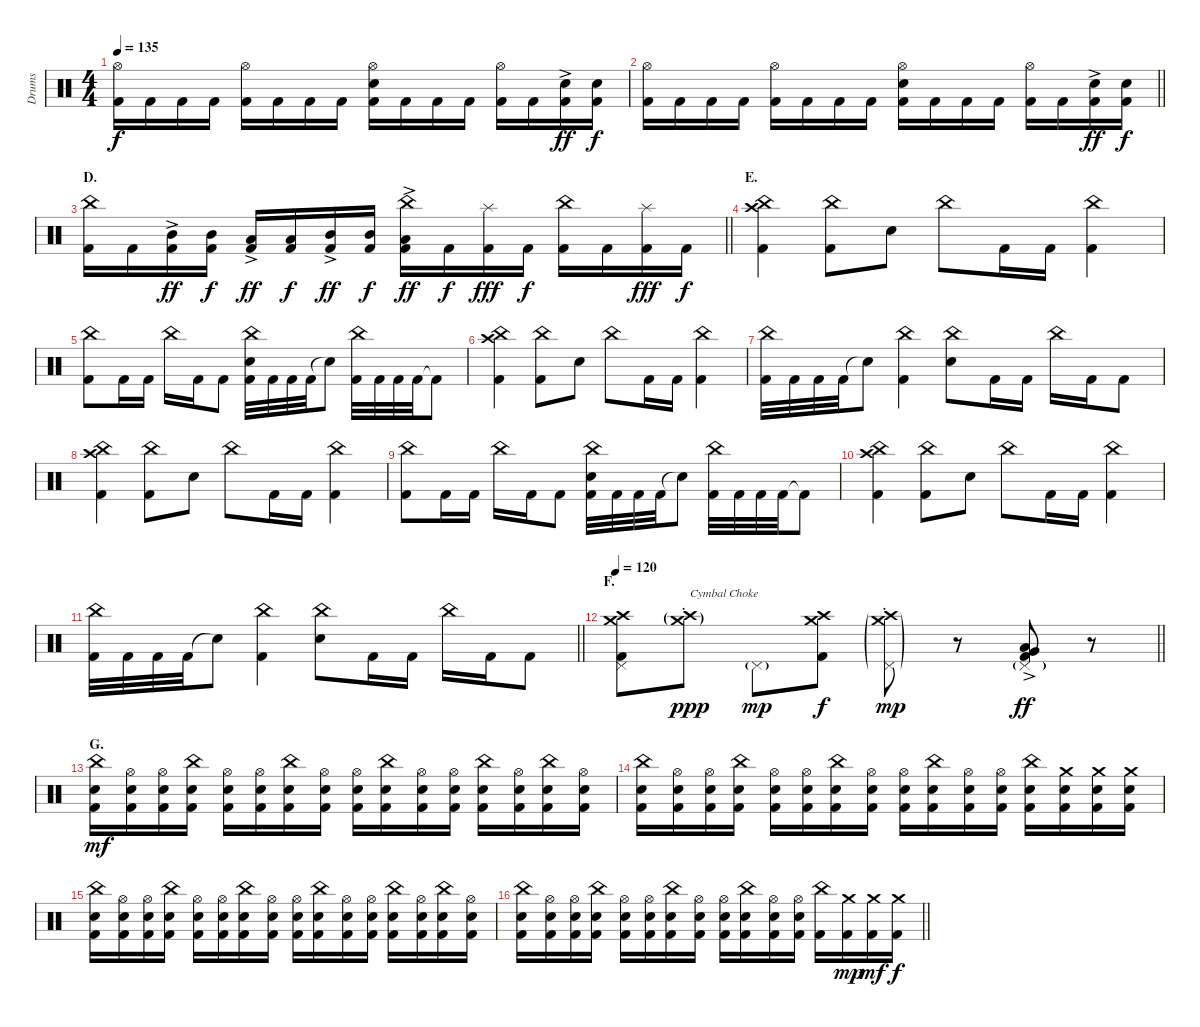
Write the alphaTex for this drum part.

\track ("Drums" "Drums") {instrument percussion}
\staff {score}
\articulation defaults
\ts (4 4)
\tempo 135
\clef neutral
\ks c
("Hi-Hat (open)" "Kick (hit) 2").16{dy f} "Kick (hit) 2".16 "Kick (hit) 2".16 "Kick (hit) 2".16 ("Hi-Hat (open)" "Kick (hit) 2").16 "Kick (hit) 2".16 "Kick (hit) 2".16 "Kick (hit) 2".16 ("Hi-Hat (open)" "Electric Snare (hit)" "Kick (hit) 2").16 "Kick (hit) 2".16 "Kick (hit) 2".16 "Kick (hit) 2".16 ("Hi-Hat (open)" "Kick (hit) 2").16 "Kick (hit) 2".16 ("Electric Snare (hit)"{ac} "Kick (hit) 2").16{dy ff} ("Electric Snare (hit)" "Kick (hit) 2").16{dy f} |
\barLineRight lightlight
("Hi-Hat (open)" "Kick (hit) 2").16 "Kick (hit) 2".16 "Kick (hit) 2".16 "Kick (hit) 2".16 ("Hi-Hat (open)" "Kick (hit) 2").16 "Kick (hit) 2".16 "Kick (hit) 2".16 "Kick (hit) 2".16 ("Hi-Hat (open)" "Electric Snare (hit)" "Kick (hit) 2").16 "Kick (hit) 2".16 "Kick (hit) 2".16 "Kick (hit) 2".16 ("Hi-Hat (open)" "Kick (hit) 2").16 "Kick (hit) 2".16 ("Electric Snare (hit)"{ac} "Kick (hit) 2").16{dy ff} ("Electric Snare (hit)" "Kick (hit) 2").16{dy f} |
\section ("" "D.")
\barLineRight lightlight
("China (hit)" "Kick (hit) 2").16 "Kick (hit) 2".16 ("Mid Tom (hit)"{ac} "Kick (hit) 2").16{dy ff} ("Mid Tom (hit)" "Kick (hit) 2").16{dy f} ("Low Tom (hit)"{ac} "Kick (hit) 2").16{dy ff} ("Low Tom (hit)" "Kick (hit) 2").16{dy f} ("Mid Tom (hit)"{ac} "Kick (hit) 2").16{dy ff} ("Mid Tom (hit)" "Kick (hit) 2").16{dy f} ("China (hit)" "Low Tom (hit)"{ac} "Kick (hit) 2").16{dy ff} "Kick (hit) 2".16{dy f} ("Splash (hit)" "Kick (hit) 2").16{dy fff} "Kick (hit) 2".16{dy f} ("China (hit)" "Kick (hit) 2").16 "Kick (hit) 2".16 ("Splash (hit)" "Kick (hit) 2").16{dy fff} "Kick (hit) 2".16{dy f} |
\section ("" "E.")
("China (hit)" "Crash high (hit)" "Kick (hit) 2").4 ("China (hit)" "Kick (hit) 2").8 "Electric Snare (hit)".8 "China (hit)".8 "Kick (hit) 2".16 "Kick (hit) 2".16 ("China (hit)" "Kick (hit) 2").4 |
("China (hit)" "Kick (hit) 2").8 "Kick (hit) 2".16 "Kick (hit) 2".16 "China (hit)".16 "Kick (hit) 2".16 "Kick (hit) 2".8 ("China (hit)" "Electric Snare (hit)" "Kick (hit) 2").32 "Kick (hit) 2".32 "Kick (hit) 2".32 "Kick (hit) 2".32 "Snare (hit)"{t}.8 ("China (hit)" "Kick (hit) 2").32 "Kick (hit) 2".32 "Kick (hit) 2".32 "Kick (hit) 2".32 "Kick (hit) 2"{t}.8 |
("China (hit)" "Crash high (hit)" "Kick (hit) 2").4 ("China (hit)" "Kick (hit) 2").8 "Electric Snare (hit)".8 "China (hit)".8 "Kick (hit) 2".16 "Kick (hit) 2".16 ("China (hit)" "Kick (hit) 2").4 |
("China (hit)" "Kick (hit) 2").32 "Kick (hit) 2".32 "Kick (hit) 2".32 "Kick (hit) 2".32 "Snare (hit)"{t}.8 ("China (hit)" "Kick (hit) 2").4 ("China (hit)" "Electric Snare (hit)").8 "Kick (hit) 2".16 "Kick (hit) 2".16 "China (hit)".16 "Kick (hit) 2".16 "Kick (hit) 2".8 |
("China (hit)" "Crash high (hit)" "Kick (hit) 2").4 ("China (hit)" "Kick (hit) 2").8 "Electric Snare (hit)".8 "China (hit)".8 "Kick (hit) 2".16 "Kick (hit) 2".16 ("China (hit)" "Kick (hit) 2").4 |
("China (hit)" "Kick (hit) 2").8 "Kick (hit) 2".16 "Kick (hit) 2".16 "China (hit)".16 "Kick (hit) 2".16 "Kick (hit) 2".8 ("China (hit)" "Electric Snare (hit)" "Kick (hit) 2").32 "Kick (hit) 2".32 "Kick (hit) 2".32 "Kick (hit) 2".32 "Snare (hit)"{t}.8 ("China (hit)" "Kick (hit) 2").32 "Kick (hit) 2".32 "Kick (hit) 2".32 "Kick (hit) 2".32 "Kick (hit) 2"{t}.8 |
("China (hit)" "Crash high (hit)" "Kick (hit) 2").4 ("China (hit)" "Kick (hit) 2").8 "Electric Snare (hit)".8 "China (hit)".8 "Kick (hit) 2".16 "Kick (hit) 2".16 ("China (hit)" "Kick (hit) 2").4 |
\barLineRight lightlight
("China (hit)" "Kick (hit) 2").32 "Kick (hit) 2".32 "Kick (hit) 2".32 "Kick (hit) 2".32 "Snare (hit)"{t}.8 ("China (hit)" "Kick (hit) 2").4 ("China (hit)" "Electric Snare (hit)").8 "Kick (hit) 2".16 "Kick (hit) 2".16 "China (hit)".16 "Kick (hit) 2".16 "Kick (hit) 2".8 |
\section ("" "F.")
\tempo 120
\barLineRight lightlight
("Crash medium (hit)" "Crash high (hit)" "Pedal Hi-Hat (hit)" "Kick (hit) 2").8 ("Crash medium (hit)"{g st} "Crash high (hit)"{g st}).8{txt "Cymbal Choke" dy ppp} "Pedal Hi-Hat (hit)"{g}.8{dy mp} ("Crash medium (hit)" "Crash high (hit)" "Kick (hit) 2").8{dy f} ("Crash medium (hit)"{g st} "Crash high (hit)"{g st} "Pedal Hi-Hat (hit)"{g}).8{dy mp} r.8 ("Pedal Hi-Hat (hit)"{g} "Low Tom (hit)" "Very Low Tom (hit)"{ac} "Kick (hit) 2").8{dy ff} r.8 |
\section ("" "G.")
("China (hit)" "Electric Snare (hit)" "Kick (hit) 2").16{dy mf} ("Hi-Hat (open)" "Electric Snare (hit)" "Kick (hit) 2").16 ("Hi-Hat (open)" "Electric Snare (hit)" "Kick (hit) 2").16 ("China (hit)" "Electric Snare (hit)" "Kick (hit) 2").16 ("Hi-Hat (open)" "Electric Snare (hit)" "Kick (hit) 2").16 ("Hi-Hat (open)" "Electric Snare (hit)" "Kick (hit) 2").16 ("China (hit)" "Electric Snare (hit)" "Kick (hit) 2").16 ("Hi-Hat (open)" "Electric Snare (hit)" "Kick (hit) 2").16 ("Hi-Hat (open)" "Electric Snare (hit)" "Kick (hit) 2").16 ("China (hit)" "Electric Snare (hit)" "Kick (hit) 2").16 ("Hi-Hat (open)" "Electric Snare (hit)" "Kick (hit) 2").16 ("Hi-Hat (open)" "Electric Snare (hit)" "Kick (hit) 2").16 ("China (hit)" "Electric Snare (hit)" "Kick (hit) 2").16 ("Hi-Hat (open)" "Electric Snare (hit)" "Kick (hit) 2").16 ("China (hit)" "Electric Snare (hit)" "Kick (hit) 2").16 ("Hi-Hat (open)" "Electric Snare (hit)" "Kick (hit) 2").16 |
("China (hit)" "Electric Snare (hit)" "Kick (hit) 2").16 ("Hi-Hat (open)" "Electric Snare (hit)" "Kick (hit) 2").16 ("Hi-Hat (open)" "Electric Snare (hit)" "Kick (hit) 2").16 ("China (hit)" "Electric Snare (hit)" "Kick (hit) 2").16 ("Hi-Hat (open)" "Electric Snare (hit)" "Kick (hit) 2").16 ("Hi-Hat (open)" "Electric Snare (hit)" "Kick (hit) 2").16 ("China (hit)" "Electric Snare (hit)" "Kick (hit) 2").16 ("Hi-Hat (open)" "Electric Snare (hit)" "Kick (hit) 2").16 ("Hi-Hat (open)" "Electric Snare (hit)" "Kick (hit) 2").16 ("China (hit)" "Electric Snare (hit)" "Kick (hit) 2").16 ("Hi-Hat (open)" "Electric Snare (hit)" "Kick (hit) 2").16 ("Hi-Hat (open)" "Electric Snare (hit)" "Kick (hit) 2").16 ("China (hit)" "Electric Snare (hit)" "Kick (hit) 2").16 ("Crash medium (hit)" "Electric Snare (hit)" "Kick (hit) 2").16 ("Crash medium (hit)" "Electric Snare (hit)" "Kick (hit) 2").16 ("Crash medium (hit)" "Electric Snare (hit)" "Kick (hit) 2").16 |
("China (hit)" "Electric Snare (hit)" "Kick (hit) 2").16 ("Hi-Hat (open)" "Electric Snare (hit)" "Kick (hit) 2").16 ("Hi-Hat (open)" "Electric Snare (hit)" "Kick (hit) 2").16 ("China (hit)" "Electric Snare (hit)" "Kick (hit) 2").16 ("Hi-Hat (open)" "Electric Snare (hit)" "Kick (hit) 2").16 ("Hi-Hat (open)" "Electric Snare (hit)" "Kick (hit) 2").16 ("China (hit)" "Electric Snare (hit)" "Kick (hit) 2").16 ("Hi-Hat (open)" "Electric Snare (hit)" "Kick (hit) 2").16 ("Hi-Hat (open)" "Electric Snare (hit)" "Kick (hit) 2").16 ("China (hit)" "Electric Snare (hit)" "Kick (hit) 2").16 ("Hi-Hat (open)" "Electric Snare (hit)" "Kick (hit) 2").16 ("Hi-Hat (open)" "Electric Snare (hit)" "Kick (hit) 2").16 ("China (hit)" "Electric Snare (hit)" "Kick (hit) 2").16 ("Hi-Hat (open)" "Electric Snare (hit)" "Kick (hit) 2").16 ("China (hit)" "Electric Snare (hit)" "Kick (hit) 2").16 ("Hi-Hat (open)" "Electric Snare (hit)" "Kick (hit) 2").16 |
\barLineRight lightlight
("China (hit)" "Electric Snare (hit)" "Kick (hit) 2").16 ("Hi-Hat (open)" "Electric Snare (hit)" "Kick (hit) 2").16 ("Hi-Hat (open)" "Electric Snare (hit)" "Kick (hit) 2").16 ("China (hit)" "Electric Snare (hit)" "Kick (hit) 2").16 ("Hi-Hat (open)" "Electric Snare (hit)" "Kick (hit) 2").16 ("Hi-Hat (open)" "Electric Snare (hit)" "Kick (hit) 2").16 ("China (hit)" "Electric Snare (hit)" "Kick (hit) 2").16 ("Hi-Hat (open)" "Electric Snare (hit)" "Kick (hit) 2").16 ("Hi-Hat (open)" "Electric Snare (hit)" "Kick (hit) 2").16 ("China (hit)" "Electric Snare (hit)" "Kick (hit) 2").16 ("Hi-Hat (open)" "Electric Snare (hit)" "Kick (hit) 2").16 ("Hi-Hat (open)" "Electric Snare (hit)" "Kick (hit) 2").16 ("China (hit)" "Kick (hit) 2").16 ("Crash medium (hit)" "Kick (hit) 2").16{dy mp} ("Crash medium (hit)" "Kick (hit) 2").16{dy mf} ("Crash medium (hit)" "Kick (hit) 2").16{dy f}
